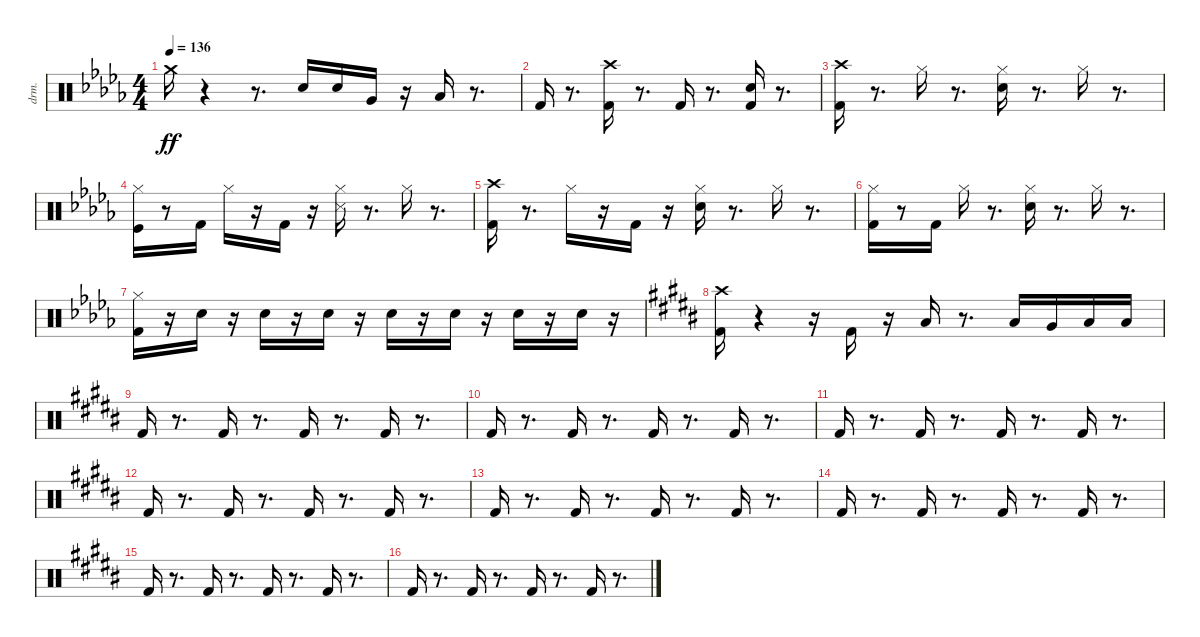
\bracketExtendMode nobrackets
\track ("Drums" "drm.") {instrument percussion}
\staff {score}
\articulation defaults
\ts (4 4)
\tempo 136
\clef neutral
\ks db "Crash medium (hit)"{acc forcenatural}.16{dy ff beam Down}
r.4{beam Down} r.8{d beam Down} "Electric Snare (hit)"{acc forcenatural}.16{beam Up} "Electric Snare (hit)"{acc forcenatural}.16{beam Up} "Very Low Tom (hit)"{acc forcenatural}.16{beam Up} r.16{beam Down} "Low Floor Tom (hit)"{acc forcenatural}.16{beam Up} r.8{d beam Down} |
"Kick (hit) 2"{acc forcenatural}.16{beam Up} r.8{d beam Down} ("Kick (hit) 2"{acc forcenatural} "Crash high (hit)"{acc #}).16{beam Down} r.8{d beam Down} "Kick (hit) 2"{acc forcenatural}.16{beam Up} r.8{d beam Down} ("Kick (hit) 2"{acc forcenatural} "Electric Snare (hit)"{acc forcenatural}).16{beam Up} r.8{d beam Down} |
("Kick (hit) 2"{acc forcenatural} "Crash high (hit)"{acc #}).16{beam Down} r.8{d beam Down} "Hi-Hat (closed)"{acc #}.16{beam Down} r.8{d beam Down} ("Electric Snare (hit)"{acc forcenatural} "Hi-Hat (closed)"{acc #}).16{beam Down} r.8{d beam Down} "Hi-Hat (closed)"{acc #}.16{beam Down} r.8{d beam Down} |
("Kick (hit)"{acc forcenatural} "Hi-Hat (closed)"{acc #}).16{beam Down} r.8{beam Down} "Kick (hit) 2"{acc forcenatural}.16{beam Down} "Hi-Hat (closed)"{acc #}.16{beam Down} r.16{beam Down} "Kick (hit) 2"{acc forcenatural}.16{beam Down} r.16{beam Down} ("Snare (side stick) 3"{acc #} "Hi-Hat (closed)"{acc #}).16{beam Down} r.8{d beam Down} "Hi-Hat (closed)"{acc #}.16{beam Down} r.8{d beam Down} |
("Kick (hit) 2"{acc forcenatural} "Crash high (hit)"{acc #}).16{beam Down} r.8{d beam Down} "Hi-Hat (closed)"{acc #}.16{beam Down} r.16{beam Down} "Kick (hit) 2"{acc forcenatural}.16{beam Down} r.16{beam Down} ("Electric Snare (hit)"{acc forcenatural} "Hi-Hat (closed)"{acc #}).16{beam Down} r.8{d beam Down} "Hi-Hat (closed)"{acc #}.16{beam Down} r.8{d beam Down} |
("Kick (hit) 2"{acc forcenatural} "Hi-Hat (closed)"{acc #}).16{beam Down} r.8{beam Down} "Kick (hit) 2"{acc forcenatural}.16{beam Down} "Hi-Hat (closed)"{acc #}.16{beam Down} r.8{d beam Down} ("Electric Snare (hit)"{acc forcenatural} "Hi-Hat (closed)"{acc #}).16{beam Down} r.8{d beam Down} "Hi-Hat (closed)"{acc #}.16{beam Down} r.8{d beam Down} |
("Kick (hit) 2"{acc forcenatural} "Hi-Hat (closed)"{acc #}).16{beam Down} r.16{beam Down} "Electric Snare (hit)"{acc forcenatural}.16{beam Down} r.16{beam Down} "Electric Snare (hit)"{acc forcenatural}.16{beam Down} r.16{beam Down} "Electric Snare (hit)"{acc forcenatural}.16{beam Down} r.16{beam Down} "Electric Snare (hit)"{acc forcenatural}.16{beam Down} r.16{beam Down} "Electric Snare (hit)"{acc forcenatural}.16{beam Down} r.16{beam Down} "Electric Snare (hit)"{acc forcenatural}.16{beam Down} r.16{beam Down} "Electric Snare (hit)"{acc forcenatural}.16{beam Down} r.16{beam Down} |
\ks b
("Kick (hit) 2"{acc forcenatural} "Crash high (hit)"{acc #}).16{beam Down} r.4{beam Down} r.16{beam Down} "Kick (hit) 2"{acc forcenatural}.16{beam Up} r.16{beam Down} "Low Tom (hit)"{acc forcenatural}.16{beam Up} r.8{d beam Down} "Low Tom (hit)"{acc forcenatural}.16{beam Up} "Very Low Tom (hit)"{acc forcenatural}.16{beam Up} "Low Floor Tom (hit)"{acc forcenatural}.16{beam Up} "Low Floor Tom (hit)"{acc forcenatural}.16{beam Up} |
"Kick (hit) 2"{acc forcenatural}.16{beam Up} r.8{d beam Down} "Kick (hit) 2"{acc forcenatural}.16{beam Up} r.8{d beam Down} "Kick (hit) 2"{acc forcenatural}.16{beam Up} r.8{d beam Down} "Kick (hit) 2"{acc forcenatural}.16{beam Up} r.8{d beam Down} |
"Kick (hit) 2"{acc forcenatural}.16{beam Up} r.8{d beam Down} "Kick (hit) 2"{acc forcenatural}.16{beam Up} r.8{d beam Down} "Kick (hit) 2"{acc forcenatural}.16{beam Up} r.8{d beam Down} "Kick (hit) 2"{acc forcenatural}.16{beam Up} r.8{d beam Down} |
"Kick (hit) 2"{acc forcenatural}.16{beam Up} r.8{d beam Down} "Kick (hit) 2"{acc forcenatural}.16{beam Up} r.8{d beam Down} "Kick (hit) 2"{acc forcenatural}.16{beam Up} r.8{d beam Down} "Kick (hit) 2"{acc forcenatural}.16{beam Up} r.8{d beam Down} |
"Kick (hit) 2"{acc forcenatural}.16{beam Up} r.8{d beam Down} "Kick (hit) 2"{acc forcenatural}.16{beam Up} r.8{d beam Down} "Kick (hit) 2"{acc forcenatural}.16{beam Up} r.8{d beam Down} "Kick (hit) 2"{acc forcenatural}.16{beam Up} r.8{d beam Down} |
"Kick (hit) 2"{acc forcenatural}.16{beam Up} r.8{d beam Down} "Kick (hit) 2"{acc forcenatural}.16{beam Up} r.8{d beam Down} "Kick (hit) 2"{acc forcenatural}.16{beam Up} r.8{d beam Down} "Kick (hit) 2"{acc forcenatural}.16{beam Up} r.8{d beam Down} |
"Kick (hit) 2"{acc forcenatural}.16{beam Up} r.8{d beam Down} "Kick (hit) 2"{acc forcenatural}.16{beam Up} r.8{d beam Down} "Kick (hit) 2"{acc forcenatural}.16{beam Up} r.8{d beam Down} "Kick (hit) 2"{acc forcenatural}.16{beam Up} r.8{d beam Down} |
"Kick (hit) 2"{acc forcenatural}.16{beam Up} r.8{d beam Down} "Kick (hit) 2"{acc forcenatural}.16{beam Up} r.8{d beam Down} "Kick (hit) 2"{acc forcenatural}.16{beam Up} r.8{d beam Down} "Kick (hit) 2"{acc forcenatural}.16{beam Up} r.8{d beam Down} |
"Kick (hit) 2"{acc forcenatural}.16{beam Up} r.8{d beam Down} "Kick (hit) 2"{acc forcenatural}.16{beam Up} r.8{d beam Down} "Kick (hit) 2"{acc forcenatural}.16{beam Up} r.8{d beam Down} "Kick (hit) 2"{acc forcenatural}.16{beam Up} r.8{d beam Down}
